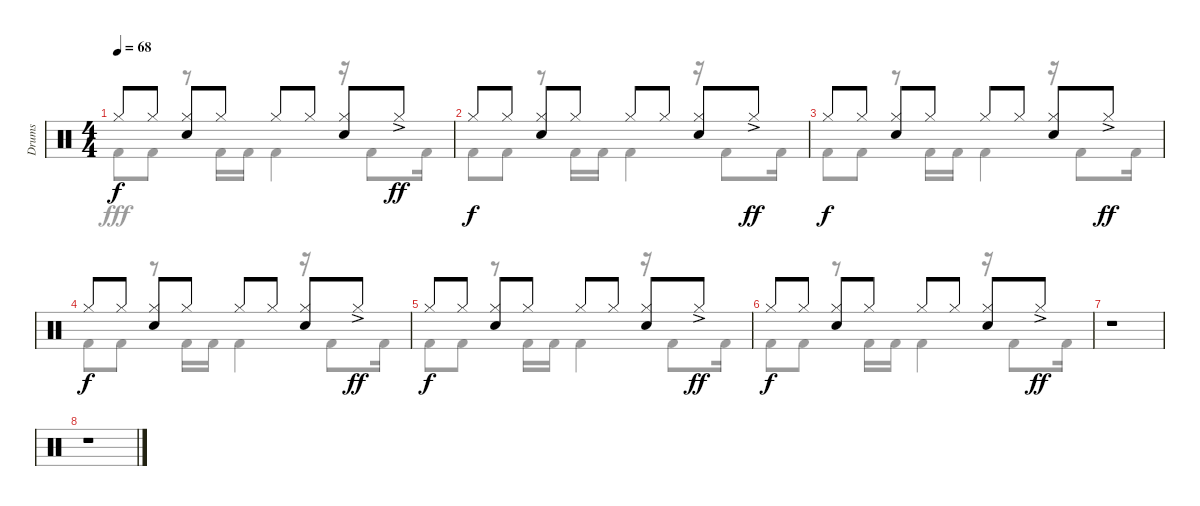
\track ("Drums" "Drums") {instrument percussion}
\staff {score}
\articulation defaults
\voice
\ts (4 4)
\tempo 68
\clef neutral
\ks c "Hi-Hat (closed)".8{dy f} "Hi-Hat (closed)".8
("Hi-Hat (closed)" "Snare (hit) 2").8 "Hi-Hat (closed)".8 "Hi-Hat (closed)".8 "Hi-Hat (closed)".8 ("Hi-Hat (closed)" "Snare (hit) 2").8 "Hi-Hat (closed)"{ac}.8{dy ff} |
"Hi-Hat (closed)".8{dy f} "Hi-Hat (closed)".8 ("Hi-Hat (closed)" "Snare (hit) 2").8 "Hi-Hat (closed)".8 "Hi-Hat (closed)".8 "Hi-Hat (closed)".8 ("Hi-Hat (closed)" "Snare (hit) 2").8 "Hi-Hat (closed)"{ac}.8{dy ff} |
"Hi-Hat (closed)".8{dy f} "Hi-Hat (closed)".8 ("Hi-Hat (closed)" "Snare (hit) 2").8 "Hi-Hat (closed)".8 "Hi-Hat (closed)".8 "Hi-Hat (closed)".8 ("Hi-Hat (closed)" "Snare (hit) 2").8 "Hi-Hat (closed)"{ac}.8{dy ff} |
"Hi-Hat (closed)".8{dy f} "Hi-Hat (closed)".8 ("Hi-Hat (closed)" "Snare (hit) 2").8 "Hi-Hat (closed)".8 "Hi-Hat (closed)".8 "Hi-Hat (closed)".8 ("Hi-Hat (closed)" "Snare (hit) 2").8 "Hi-Hat (closed)"{ac}.8{dy ff} |
"Hi-Hat (closed)".8{dy f} "Hi-Hat (closed)".8 ("Hi-Hat (closed)" "Snare (hit) 2").8 "Hi-Hat (closed)".8 "Hi-Hat (closed)".8 "Hi-Hat (closed)".8 ("Hi-Hat (closed)" "Snare (hit) 2").8 "Hi-Hat (closed)"{ac}.8{dy ff} |
"Hi-Hat (closed)".8{dy f} "Hi-Hat (closed)".8 ("Hi-Hat (closed)" "Snare (hit) 2").8 "Hi-Hat (closed)".8 "Hi-Hat (closed)".8 "Hi-Hat (closed)".8 ("Hi-Hat (closed)" "Snare (hit) 2").8 "Hi-Hat (closed)"{ac}.8{dy ff} |
r.1 |
r.1
\voice
\clef neutral
\ottava regular
\simile none
\ks c "Kick (hit) 2".8{dy fff} "Kick (hit) 2".8
r.8 "Kick (hit) 2".16 "Kick (hit) 2".16 "Kick (hit) 2".4 r.16 "Kick (hit) 2".8 "Kick (hit) 2".16 |
"Kick (hit) 2".8 "Kick (hit) 2".8 r.8 "Kick (hit) 2".16 "Kick (hit) 2".16 "Kick (hit) 2".4 r.16 "Kick (hit) 2".8 "Kick (hit) 2".16 |
"Kick (hit) 2".8 "Kick (hit) 2".8 r.8 "Kick (hit) 2".16 "Kick (hit) 2".16 "Kick (hit) 2".4 r.16 "Kick (hit) 2".8 "Kick (hit) 2".16 |
"Kick (hit) 2".8 "Kick (hit) 2".8 r.8 "Kick (hit) 2".16 "Kick (hit) 2".16 "Kick (hit) 2".4 r.16 "Kick (hit) 2".8 "Kick (hit) 2".16 |
"Kick (hit) 2".8 "Kick (hit) 2".8 r.8 "Kick (hit) 2".16 "Kick (hit) 2".16 "Kick (hit) 2".4 r.16 "Kick (hit) 2".8 "Kick (hit) 2".16 |
"Kick (hit) 2".8 "Kick (hit) 2".8 r.8 "Kick (hit) 2".16 "Kick (hit) 2".16 "Kick (hit) 2".4 r.16 "Kick (hit) 2".8 "Kick (hit) 2".16 |
|
